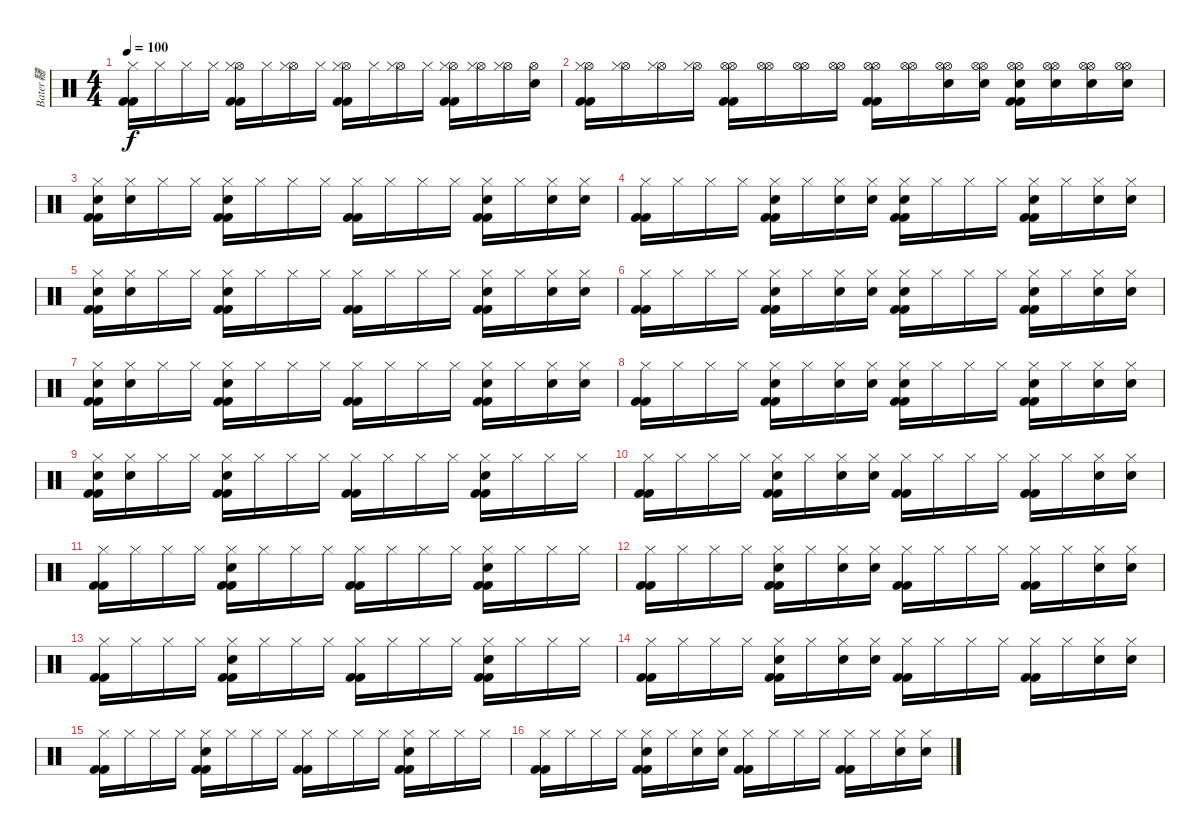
\track ("Bater韆" "Bater韆") {instrument percussion}
\staff {score}
\articulation defaults
\ts (4 4)
\tempo 100
\clef neutral
\ks c
("Kick (hit) 2" "Kick (hit) 2" "Hi-Hat (closed)").16{dy f} "Hi-Hat (closed)".16 "Hi-Hat (closed)".16 "Hi-Hat (closed)".16 ("Kick (hit) 2" "Kick (hit) 2" "Hi-Hat (open)" "Hi-Hat (closed)").16 "Hi-Hat (closed)".16 ("Hi-Hat (open)" "Hi-Hat (closed)").16 "Hi-Hat (closed)".16 ("Kick (hit) 2" "Kick (hit) 2" "Hi-Hat (open)" "Hi-Hat (closed)").16 "Hi-Hat (closed)".16 ("Hi-Hat (open)" "Hi-Hat (closed)").16 "Hi-Hat (closed)".16 ("Kick (hit) 2" "Kick (hit) 2" "Hi-Hat (open)" "Hi-Hat (closed)").16 ("Hi-Hat (open)" "Hi-Hat (closed)").16 ("Hi-Hat (open)" "Hi-Hat (closed)").16 ("Hi-Hat (open)" "Snare (hit)").16 |
("Kick (hit) 2" "Kick (hit) 2" "Hi-Hat (open)" "Hi-Hat (closed)").16 ("Hi-Hat (open)" "Hi-Hat (closed)").16 ("Hi-Hat (open)" "Hi-Hat (closed)").16 ("Hi-Hat (open)" "Hi-Hat (closed)").16 ("Kick (hit) 2" "Kick (hit) 2" "Hi-Hat (open)" "Hi-Hat (open)").16 ("Hi-Hat (open)" "Hi-Hat (open)").16 ("Hi-Hat (open)" "Hi-Hat (open)").16 ("Hi-Hat (open)" "Hi-Hat (open)").16 ("Kick (hit) 2" "Kick (hit) 2" "Hi-Hat (open)" "Hi-Hat (open)").16 ("Hi-Hat (open)" "Hi-Hat (open)").16 ("Electric Snare (hit)" "Hi-Hat (open)" "Hi-Hat (open)").16 ("Electric Snare (hit)" "Hi-Hat (open)" "Hi-Hat (open)").16 ("Kick (hit) 2" "Kick (hit) 2" "Electric Snare (hit)" "Hi-Hat (open)" "Hi-Hat (open)").16 ("Electric Snare (hit)" "Hi-Hat (open)" "Hi-Hat (open)").16 ("Electric Snare (hit)" "Hi-Hat (open)" "Hi-Hat (open)").16 ("Electric Snare (hit)" "Hi-Hat (open)" "Hi-Hat (open)").16 |
("Kick (hit) 2" "Kick (hit) 2" "Electric Snare (hit)" "Hi-Hat (closed)").16 ("Electric Snare (hit)" "Hi-Hat (closed)").16 "Hi-Hat (closed)".16 "Hi-Hat (closed)".16 ("Kick (hit) 2" "Kick (hit) 2" "Electric Snare (hit)" "Hi-Hat (closed)").16 "Hi-Hat (closed)".16 "Hi-Hat (closed)".16 "Hi-Hat (closed)".16 ("Kick (hit) 2" "Kick (hit) 2" "Hi-Hat (closed)").16 "Hi-Hat (closed)".16 "Hi-Hat (closed)".16 "Hi-Hat (closed)".16 ("Kick (hit) 2" "Kick (hit) 2" "Electric Snare (hit)" "Hi-Hat (closed)").16 "Hi-Hat (closed)".16 ("Electric Snare (hit)" "Hi-Hat (closed)").16 ("Electric Snare (hit)" "Hi-Hat (closed)").16 |
("Kick (hit) 2" "Kick (hit) 2" "Hi-Hat (closed)").16 "Hi-Hat (closed)".16 "Hi-Hat (closed)".16 "Hi-Hat (closed)".16 ("Kick (hit) 2" "Kick (hit) 2" "Electric Snare (hit)" "Hi-Hat (closed)").16 "Hi-Hat (closed)".16 ("Electric Snare (hit)" "Hi-Hat (closed)").16 ("Electric Snare (hit)" "Hi-Hat (closed)").16 ("Kick (hit) 2" "Kick (hit) 2" "Electric Snare (hit)" "Hi-Hat (closed)").16 "Hi-Hat (closed)".16 "Hi-Hat (closed)".16 "Hi-Hat (closed)".16 ("Kick (hit) 2" "Kick (hit) 2" "Electric Snare (hit)" "Hi-Hat (closed)").16 "Hi-Hat (closed)".16 ("Electric Snare (hit)" "Hi-Hat (closed)").16 ("Electric Snare (hit)" "Hi-Hat (closed)").16 |
("Kick (hit) 2" "Kick (hit) 2" "Electric Snare (hit)" "Hi-Hat (closed)").16 ("Electric Snare (hit)" "Hi-Hat (closed)").16 "Hi-Hat (closed)".16 "Hi-Hat (closed)".16 ("Kick (hit) 2" "Kick (hit) 2" "Electric Snare (hit)" "Hi-Hat (closed)").16 "Hi-Hat (closed)".16 "Hi-Hat (closed)".16 "Hi-Hat (closed)".16 ("Kick (hit) 2" "Kick (hit) 2" "Hi-Hat (closed)").16 "Hi-Hat (closed)".16 "Hi-Hat (closed)".16 "Hi-Hat (closed)".16 ("Kick (hit) 2" "Kick (hit) 2" "Electric Snare (hit)" "Hi-Hat (closed)").16 "Hi-Hat (closed)".16 ("Electric Snare (hit)" "Hi-Hat (closed)").16 ("Electric Snare (hit)" "Hi-Hat (closed)").16 |
("Kick (hit) 2" "Kick (hit) 2" "Hi-Hat (closed)").16 "Hi-Hat (closed)".16 "Hi-Hat (closed)".16 "Hi-Hat (closed)".16 ("Kick (hit) 2" "Kick (hit) 2" "Electric Snare (hit)" "Hi-Hat (closed)").16 "Hi-Hat (closed)".16 ("Electric Snare (hit)" "Hi-Hat (closed)").16 ("Electric Snare (hit)" "Hi-Hat (closed)").16 ("Kick (hit) 2" "Kick (hit) 2" "Electric Snare (hit)" "Hi-Hat (closed)").16 "Hi-Hat (closed)".16 "Hi-Hat (closed)".16 "Hi-Hat (closed)".16 ("Kick (hit) 2" "Kick (hit) 2" "Electric Snare (hit)" "Hi-Hat (closed)").16 "Hi-Hat (closed)".16 ("Electric Snare (hit)" "Hi-Hat (closed)").16 ("Electric Snare (hit)" "Hi-Hat (closed)").16 |
("Kick (hit) 2" "Kick (hit) 2" "Electric Snare (hit)" "Hi-Hat (closed)").16 ("Electric Snare (hit)" "Hi-Hat (closed)").16 "Hi-Hat (closed)".16 "Hi-Hat (closed)".16 ("Kick (hit) 2" "Kick (hit) 2" "Electric Snare (hit)" "Hi-Hat (closed)").16 "Hi-Hat (closed)".16 "Hi-Hat (closed)".16 "Hi-Hat (closed)".16 ("Kick (hit) 2" "Kick (hit) 2" "Hi-Hat (closed)").16 "Hi-Hat (closed)".16 "Hi-Hat (closed)".16 "Hi-Hat (closed)".16 ("Kick (hit) 2" "Kick (hit) 2" "Electric Snare (hit)" "Hi-Hat (closed)").16 "Hi-Hat (closed)".16 ("Electric Snare (hit)" "Hi-Hat (closed)").16 ("Electric Snare (hit)" "Hi-Hat (closed)").16 |
("Kick (hit) 2" "Kick (hit) 2" "Hi-Hat (closed)").16 "Hi-Hat (closed)".16 "Hi-Hat (closed)".16 "Hi-Hat (closed)".16 ("Kick (hit) 2" "Kick (hit) 2" "Electric Snare (hit)" "Hi-Hat (closed)").16 "Hi-Hat (closed)".16 ("Electric Snare (hit)" "Hi-Hat (closed)").16 ("Electric Snare (hit)" "Hi-Hat (closed)").16 ("Kick (hit) 2" "Kick (hit) 2" "Electric Snare (hit)" "Hi-Hat (closed)").16 "Hi-Hat (closed)".16 "Hi-Hat (closed)".16 "Hi-Hat (closed)".16 ("Kick (hit) 2" "Kick (hit) 2" "Electric Snare (hit)" "Hi-Hat (closed)").16 "Hi-Hat (closed)".16 ("Electric Snare (hit)" "Hi-Hat (closed)").16 ("Electric Snare (hit)" "Hi-Hat (closed)").16 |
("Kick (hit) 2" "Kick (hit) 2" "Electric Snare (hit)" "Hi-Hat (closed)").16 ("Electric Snare (hit)" "Hi-Hat (closed)").16 "Hi-Hat (closed)".16 "Hi-Hat (closed)".16 ("Kick (hit) 2" "Kick (hit) 2" "Electric Snare (hit)" "Hi-Hat (closed)").16 "Hi-Hat (closed)".16 "Hi-Hat (closed)".16 "Hi-Hat (closed)".16 ("Kick (hit) 2" "Kick (hit) 2" "Hi-Hat (closed)").16 "Hi-Hat (closed)".16 "Hi-Hat (closed)".16 "Hi-Hat (closed)".16 ("Kick (hit) 2" "Kick (hit) 2" "Electric Snare (hit)" "Hi-Hat (closed)").16 "Hi-Hat (closed)".16 "Hi-Hat (closed)".16 "Hi-Hat (closed)".16 |
("Kick (hit) 2" "Kick (hit) 2" "Hi-Hat (closed)").16 "Hi-Hat (closed)".16 "Hi-Hat (closed)".16 "Hi-Hat (closed)".16 ("Kick (hit) 2" "Kick (hit) 2" "Electric Snare (hit)" "Hi-Hat (closed)").16 "Hi-Hat (closed)".16 ("Electric Snare (hit)" "Hi-Hat (closed)").16 ("Electric Snare (hit)" "Hi-Hat (closed)").16 ("Kick (hit) 2" "Kick (hit) 2" "Hi-Hat (closed)").16 "Hi-Hat (closed)".16 "Hi-Hat (closed)".16 "Hi-Hat (closed)".16 ("Kick (hit) 2" "Kick (hit) 2" "Hi-Hat (closed)").16 "Hi-Hat (closed)".16 ("Electric Snare (hit)" "Hi-Hat (closed)").16 ("Electric Snare (hit)" "Hi-Hat (closed)").16 |
("Kick (hit) 2" "Kick (hit) 2" "Hi-Hat (closed)").16 "Hi-Hat (closed)".16 "Hi-Hat (closed)".16 "Hi-Hat (closed)".16 ("Kick (hit) 2" "Kick (hit) 2" "Electric Snare (hit)" "Hi-Hat (closed)").16 "Hi-Hat (closed)".16 "Hi-Hat (closed)".16 "Hi-Hat (closed)".16 ("Kick (hit) 2" "Kick (hit) 2" "Hi-Hat (closed)").16 "Hi-Hat (closed)".16 "Hi-Hat (closed)".16 "Hi-Hat (closed)".16 ("Kick (hit) 2" "Kick (hit) 2" "Electric Snare (hit)" "Hi-Hat (closed)").16 "Hi-Hat (closed)".16 "Hi-Hat (closed)".16 "Hi-Hat (closed)".16 |
("Kick (hit) 2" "Kick (hit) 2" "Hi-Hat (closed)").16 "Hi-Hat (closed)".16 "Hi-Hat (closed)".16 "Hi-Hat (closed)".16 ("Kick (hit) 2" "Kick (hit) 2" "Electric Snare (hit)" "Hi-Hat (closed)").16 "Hi-Hat (closed)".16 ("Electric Snare (hit)" "Hi-Hat (closed)").16 ("Electric Snare (hit)" "Hi-Hat (closed)").16 ("Kick (hit) 2" "Kick (hit) 2" "Hi-Hat (closed)").16 "Hi-Hat (closed)".16 "Hi-Hat (closed)".16 "Hi-Hat (closed)".16 ("Kick (hit) 2" "Kick (hit) 2" "Hi-Hat (closed)").16 "Hi-Hat (closed)".16 ("Electric Snare (hit)" "Hi-Hat (closed)").16 ("Electric Snare (hit)" "Hi-Hat (closed)").16 |
("Kick (hit) 2" "Kick (hit) 2" "Hi-Hat (closed)").16 "Hi-Hat (closed)".16 "Hi-Hat (closed)".16 "Hi-Hat (closed)".16 ("Kick (hit) 2" "Kick (hit) 2" "Electric Snare (hit)" "Hi-Hat (closed)").16 "Hi-Hat (closed)".16 "Hi-Hat (closed)".16 "Hi-Hat (closed)".16 ("Kick (hit) 2" "Kick (hit) 2" "Hi-Hat (closed)").16 "Hi-Hat (closed)".16 "Hi-Hat (closed)".16 "Hi-Hat (closed)".16 ("Kick (hit) 2" "Kick (hit) 2" "Electric Snare (hit)" "Hi-Hat (closed)").16 "Hi-Hat (closed)".16 "Hi-Hat (closed)".16 "Hi-Hat (closed)".16 |
("Kick (hit) 2" "Kick (hit) 2" "Hi-Hat (closed)").16 "Hi-Hat (closed)".16 "Hi-Hat (closed)".16 "Hi-Hat (closed)".16 ("Kick (hit) 2" "Kick (hit) 2" "Electric Snare (hit)" "Hi-Hat (closed)").16 "Hi-Hat (closed)".16 ("Electric Snare (hit)" "Hi-Hat (closed)").16 ("Electric Snare (hit)" "Hi-Hat (closed)").16 ("Kick (hit) 2" "Kick (hit) 2" "Hi-Hat (closed)").16 "Hi-Hat (closed)".16 "Hi-Hat (closed)".16 "Hi-Hat (closed)".16 ("Kick (hit) 2" "Kick (hit) 2" "Hi-Hat (closed)").16 "Hi-Hat (closed)".16 ("Electric Snare (hit)" "Hi-Hat (closed)").16 ("Electric Snare (hit)" "Hi-Hat (closed)").16 |
("Kick (hit) 2" "Kick (hit) 2" "Hi-Hat (closed)").16 "Hi-Hat (closed)".16 "Hi-Hat (closed)".16 "Hi-Hat (closed)".16 ("Kick (hit) 2" "Kick (hit) 2" "Electric Snare (hit)" "Hi-Hat (closed)").16 "Hi-Hat (closed)".16 "Hi-Hat (closed)".16 "Hi-Hat (closed)".16 ("Kick (hit) 2" "Kick (hit) 2" "Hi-Hat (closed)").16 "Hi-Hat (closed)".16 "Hi-Hat (closed)".16 "Hi-Hat (closed)".16 ("Kick (hit) 2" "Kick (hit) 2" "Electric Snare (hit)" "Hi-Hat (closed)").16 "Hi-Hat (closed)".16 "Hi-Hat (closed)".16 "Hi-Hat (closed)".16 |
("Kick (hit) 2" "Kick (hit) 2" "Hi-Hat (closed)").16 "Hi-Hat (closed)".16 "Hi-Hat (closed)".16 "Hi-Hat (closed)".16 ("Kick (hit) 2" "Kick (hit) 2" "Electric Snare (hit)" "Hi-Hat (closed)").16 "Hi-Hat (closed)".16 ("Electric Snare (hit)" "Hi-Hat (closed)").16 ("Electric Snare (hit)" "Hi-Hat (closed)").16 ("Kick (hit) 2" "Kick (hit) 2" "Hi-Hat (closed)").16 "Hi-Hat (closed)".16 "Hi-Hat (closed)".16 "Hi-Hat (closed)".16 ("Kick (hit) 2" "Kick (hit) 2" "Hi-Hat (closed)").16 "Hi-Hat (closed)".16 ("Electric Snare (hit)" "Hi-Hat (closed)").16 ("Electric Snare (hit)" "Hi-Hat (closed)").16
